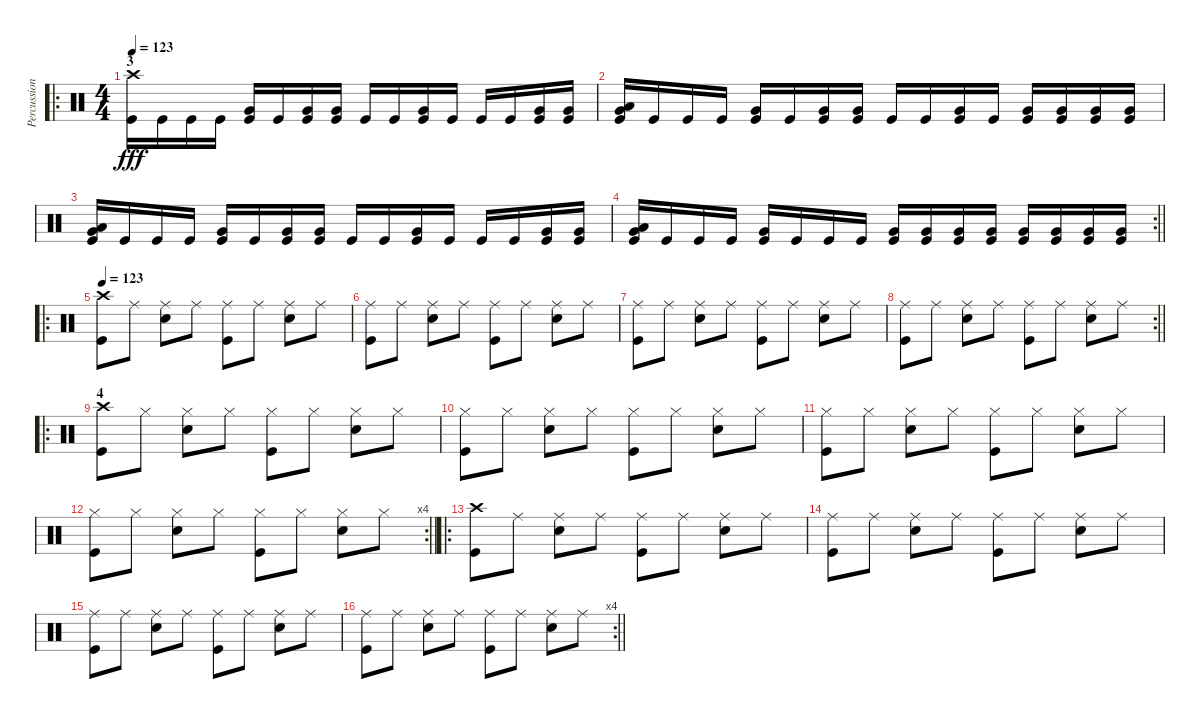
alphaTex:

\track ("Percussion" "Percussion") {instrument percussion}
\staff {score}
\articulation defaults
\ro
\ts (4 4)
\section ("" "3")
\tempo 123
\clef neutral
\ks c
("Crash high (hit)" "Kick (hit)").16{dy fff} "Kick (hit)".16 "Kick (hit)".16 "Kick (hit)".16 ("Very Low Tom (hit)" "Kick (hit)").16 "Kick (hit)".16 ("Very Low Tom (hit)" "Kick (hit)").16 ("Very Low Tom (hit)" "Kick (hit)").16 "Kick (hit)".16 "Kick (hit)".16 ("Very Low Tom (hit)" "Kick (hit)").16 "Kick (hit)".16 "Kick (hit)".16 "Kick (hit)".16 ("Very Low Tom (hit)" "Kick (hit)").16 ("Very Low Tom (hit)" "Kick (hit)").16 |
("Very Low Tom (hit)" "Low Tom (hit)" "Kick (hit)").16{bu 240} "Kick (hit)".16 "Kick (hit)".16 "Kick (hit)".16 ("Very Low Tom (hit)" "Kick (hit)").16 "Kick (hit)".16 ("Very Low Tom (hit)" "Kick (hit)").16 ("Very Low Tom (hit)" "Kick (hit)").16 "Kick (hit)".16 "Kick (hit)".16 ("Very Low Tom (hit)" "Kick (hit)").16 "Kick (hit)".16 ("Very Low Tom (hit)" "Kick (hit)").16 ("Very Low Tom (hit)" "Kick (hit)").16 ("Very Low Tom (hit)" "Kick (hit)").16 ("Very Low Tom (hit)" "Kick (hit)").16 |
("Very Low Tom (hit)" "Low Tom (hit)" "Kick (hit)").16{bu 240} "Kick (hit)".16 "Kick (hit)".16 "Kick (hit)".16 ("Very Low Tom (hit)" "Kick (hit)").16 "Kick (hit)".16 ("Very Low Tom (hit)" "Kick (hit)").16 ("Very Low Tom (hit)" "Kick (hit)").16 "Kick (hit)".16 "Kick (hit)".16 ("Very Low Tom (hit)" "Kick (hit)").16 "Kick (hit)".16 "Kick (hit)".16 "Kick (hit)".16 ("Very Low Tom (hit)" "Kick (hit)").16 ("Very Low Tom (hit)" "Kick (hit)").16 |
\rc 2
\barLineRight lightlight
("Very Low Tom (hit)" "Low Tom (hit)" "Kick (hit)").16{bu 240} "Kick (hit)".16 "Kick (hit)".16 "Kick (hit)".16 ("Very Low Tom (hit)" "Kick (hit)").16 "Kick (hit)".16 "Kick (hit)".16 "Kick (hit)".16 ("Very Low Tom (hit)" "Kick (hit)").16 ("Very Low Tom (hit)" "Kick (hit)").16 ("Very Low Tom (hit)" "Kick (hit)").16 ("Very Low Tom (hit)" "Kick (hit)").16 ("Very Low Tom (hit)" "Kick (hit)").16 ("Very Low Tom (hit)" "Kick (hit)").16 ("Very Low Tom (hit)" "Kick (hit)").16 ("Very Low Tom (hit)" "Kick (hit)").16 |
\ro
\section ("" "")
\tempo 123
("Crash high (hit)" "Kick (hit)").8 "Ride (middle)".8 ("Ride (middle)" "Snare (hit) 2").8 "Ride (middle)".8 ("Ride (middle)" "Kick (hit)").8 "Ride (middle)".8 ("Ride (middle)" "Snare (hit) 2").8 "Ride (middle)".8 |
("Ride (middle)" "Kick (hit)").8 "Ride (middle)".8 ("Ride (middle)" "Snare (hit) 2").8 "Ride (middle)".8 ("Ride (middle)" "Kick (hit)").8 "Ride (middle)".8 ("Ride (middle)" "Snare (hit) 2").8 "Ride (middle)".8 |
("Ride (middle)" "Kick (hit)").8 "Ride (middle)".8 ("Ride (middle)" "Snare (hit) 2").8 "Ride (middle)".8 ("Ride (middle)" "Kick (hit)").8 "Ride (middle)".8 ("Ride (middle)" "Snare (hit) 2").8 "Ride (middle)".8 |
\rc 2
\barLineRight lightlight
("Ride (middle)" "Kick (hit)").8 "Ride (middle)".8 ("Ride (middle)" "Snare (hit) 2").8 "Ride (middle)".8 ("Ride (middle)" "Kick (hit)").8 "Ride (middle)".8 ("Ride (middle)" "Snare (hit) 2").8 "Ride (middle)".8 |
\ro
\section ("" "4")
("Crash high (hit)" "Kick (hit)").8 "Hi-Hat (closed)".8 ("Hi-Hat (closed)" "Snare (hit) 2").8 "Hi-Hat (closed)".8 ("Hi-Hat (closed)" "Kick (hit)").8 "Hi-Hat (closed)".8 ("Hi-Hat (closed)" "Snare (hit) 2").8 "Hi-Hat (closed)".8 |
("Hi-Hat (closed)" "Kick (hit)").8 "Hi-Hat (closed)".8 ("Hi-Hat (closed)" "Snare (hit) 2").8 "Hi-Hat (closed)".8 ("Hi-Hat (closed)" "Kick (hit)").8 "Hi-Hat (closed)".8 ("Hi-Hat (closed)" "Snare (hit) 2").8 "Hi-Hat (closed)".8 |
("Hi-Hat (closed)" "Kick (hit)").8 "Hi-Hat (closed)".8 ("Hi-Hat (closed)" "Snare (hit) 2").8 "Hi-Hat (closed)".8 ("Hi-Hat (closed)" "Kick (hit)").8 "Hi-Hat (closed)".8 ("Hi-Hat (closed)" "Snare (hit) 2").8 "Hi-Hat (closed)".8 |
\rc 4
\barLineRight lightlight
("Hi-Hat (closed)" "Kick (hit)").8 "Hi-Hat (closed)".8 ("Hi-Hat (closed)" "Snare (hit) 2").8 "Hi-Hat (closed)".8 ("Hi-Hat (closed)" "Kick (hit)").8 "Hi-Hat (closed)".8 ("Hi-Hat (closed)" "Snare (hit) 2").8 "Hi-Hat (closed)".8 |
\ro
\section ("" "")
("Crash high (hit)" "Kick (hit)").8 "Ride (middle)".8 ("Ride (middle)" "Snare (hit) 2").8 "Ride (middle)".8 ("Ride (middle)" "Kick (hit)").8 "Ride (middle)".8 ("Ride (middle)" "Snare (hit) 2").8 "Ride (middle)".8 |
("Ride (middle)" "Kick (hit)").8 "Ride (middle)".8 ("Ride (middle)" "Snare (hit) 2").8 "Ride (middle)".8 ("Ride (middle)" "Kick (hit)").8 "Ride (middle)".8 ("Ride (middle)" "Snare (hit) 2").8 "Ride (middle)".8 |
("Ride (middle)" "Kick (hit)").8 "Ride (middle)".8 ("Ride (middle)" "Snare (hit) 2").8 "Ride (middle)".8 ("Ride (middle)" "Kick (hit)").8 "Ride (middle)".8 ("Ride (middle)" "Snare (hit) 2").8 "Ride (middle)".8 |
\rc 4
\barLineRight lightlight
("Ride (middle)" "Kick (hit)").8 "Ride (middle)".8 ("Ride (middle)" "Snare (hit) 2").8 "Ride (middle)".8 ("Ride (middle)" "Kick (hit)").8 "Ride (middle)".8 ("Ride (middle)" "Snare (hit) 2").8 "Ride (middle)".8
